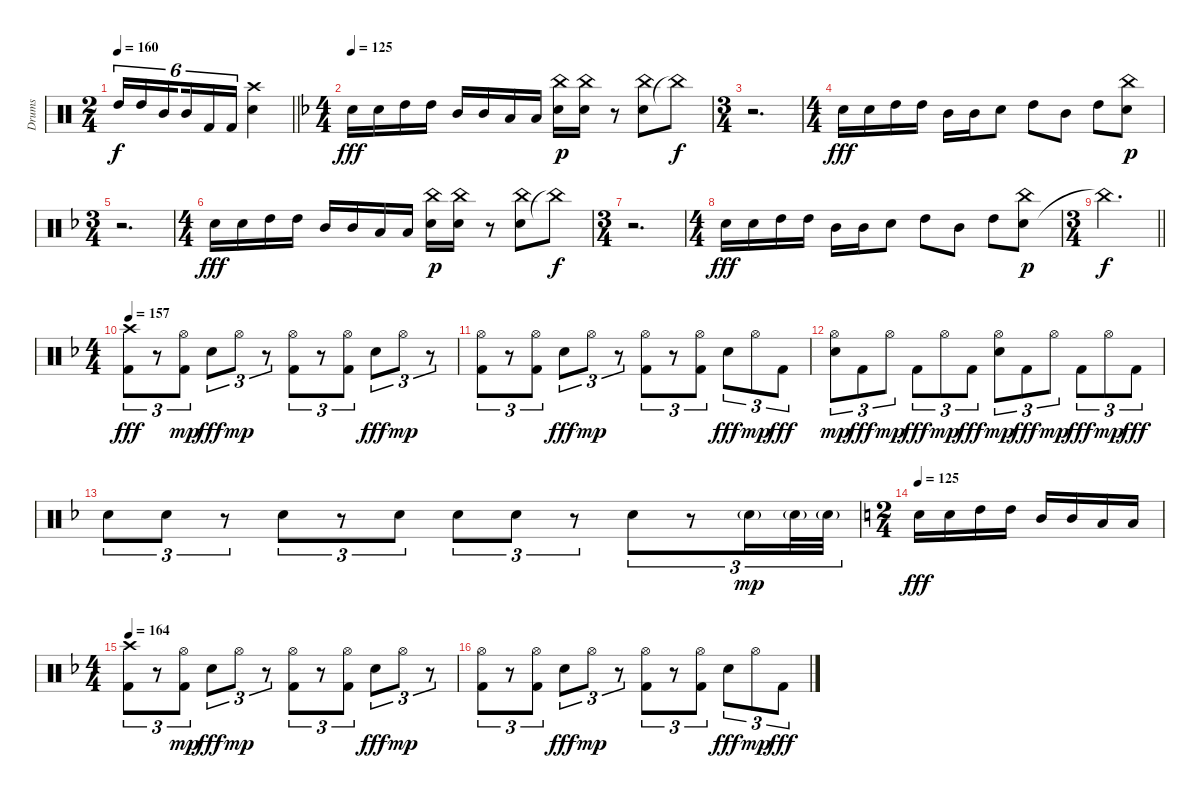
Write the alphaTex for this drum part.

\track ("Drums" "Drums") {instrument percussion}
\staff {score}
\articulation defaults
\ts (2 4)
\tempo 160
\clef neutral
\barLineRight lightlight
\ks c "High Tom (hit)".16{tu (6 4) dy f} "High Tom (hit)".16{tu (6 4)} "Mid Tom (hit)".16{tu (6 4) beam splitsecondary} "Mid Tom (hit)".16{tu (6 4)} "Kick (hit) 2".16{tu (6 4)} "Kick (hit) 2".16{tu (6 4)}
("Crash high (hit)" "Snare (hit) 2").4 |
\ts (4 4)
\tempo 125
\ks f "Electric Snare (hit)".16{dy fff} "Electric Snare (hit)".16 "High Tom (hit)".16 "High Tom (hit)".16 "Mid Tom (hit)".16 "Mid Tom (hit)".16 "Low Tom (hit)".16 "Low Tom (hit)".16
("Electric Snare (hit)" "China (hit)").16{dy p} ("Electric Snare (hit)" "China (hit)").16 r.8 ("Electric Snare (hit)" "China (hit)").8 "China (hit)"{t}.8{dy f} |
\ts (3 4)
r.2{d} |
\ts (4 4)
"Electric Snare (hit)".16{dy fff} "Electric Snare (hit)".16 "High Tom (hit)".16 "High Tom (hit)".16 "Mid Tom (hit)".16 "Mid Tom (hit)".16 "Electric Snare (hit)".8 "High Tom (hit)".8 "Mid Tom (hit)".8 "High Tom (hit)".8 ("Electric Snare (hit)" "China (hit)").8{dy p} |
\ts (3 4)
r.2{d} |
\ts (4 4)
"Electric Snare (hit)".16{dy fff} "Electric Snare (hit)".16 "High Tom (hit)".16 "High Tom (hit)".16 "Mid Tom (hit)".16 "Mid Tom (hit)".16 "Low Tom (hit)".16 "Low Tom (hit)".16 ("Electric Snare (hit)" "China (hit)").16{dy p} ("Electric Snare (hit)" "China (hit)").16 r.8 ("Electric Snare (hit)" "China (hit)").8 "China (hit)"{t}.8{dy f} |
\ts (3 4)
r.2{d} |
\ts (4 4)
"Electric Snare (hit)".16{dy fff} "Electric Snare (hit)".16 "High Tom (hit)".16 "High Tom (hit)".16 "Mid Tom (hit)".16 "Mid Tom (hit)".16 "Electric Snare (hit)".8 "High Tom (hit)".8 "Mid Tom (hit)".8 "High Tom (hit)".8 ("Electric Snare (hit)" "China (hit)").8{dy p} |
\ts (3 4)
\barLineRight lightlight "China (hit)"{t}.2{d dy f}
|
\ts (4 4)
\tempo 157
("Kick (hit) 2" "Crash high (hit)").8{tu (3 2) dy fff} r.8{tu (3 2)} ("Kick (hit) 2" "Hi-Hat (open)").8{tu (3 2) dy mp} "Electric Snare (hit)".8{tu (3 2) dy fff} "Hi-Hat (open)".8{tu (3 2) dy mp} r.8{tu (3 2)} ("Kick (hit) 2" "Hi-Hat (open)").8{tu (3 2)} r.8{tu (3 2)} ("Kick (hit) 2" "Hi-Hat (open)").8{tu (3 2)} "Electric Snare (hit)".8{tu (3 2) dy fff} "Hi-Hat (open)".8{tu (3 2) dy mp} r.8{tu (3 2)} |
("Kick (hit) 2" "Hi-Hat (open)").8{tu (3 2)} r.8{tu (3 2)} ("Kick (hit) 2" "Hi-Hat (open)").8{tu (3 2)} "Electric Snare (hit)".8{tu (3 2) dy fff} "Hi-Hat (open)".8{tu (3 2) dy mp} r.8{tu (3 2)} ("Kick (hit) 2" "Hi-Hat (open)").8{tu (3 2)} r.8{tu (3 2)} ("Kick (hit) 2" "Hi-Hat (open)").8{tu (3 2)} "Electric Snare (hit)".8{tu (3 2) dy fff} "Hi-Hat (open)".8{tu (3 2) dy mp} "Kick (hit) 2".8{tu (3 2) dy fff} |
("Electric Snare (hit)" "Hi-Hat (open)").8{tu (3 2) dy mp} "Kick (hit) 2".8{tu (3 2) dy fff} "Hi-Hat (open)".8{tu (3 2) dy mp} "Kick (hit) 2".8{tu (3 2) dy fff} "Hi-Hat (open)".8{tu (3 2) dy mp} "Kick (hit) 2".8{tu (3 2) dy fff} ("Electric Snare (hit)" "Hi-Hat (open)").8{tu (3 2) dy mp} "Kick (hit) 2".8{tu (3 2) dy fff} "Hi-Hat (open)".8{tu (3 2) dy mp} "Kick (hit) 2".8{tu (3 2) dy fff} "Hi-Hat (open)".8{tu (3 2) dy mp} "Kick (hit) 2".8{tu (3 2) dy fff} |
"Electric Snare (hit)".8{tu (3 2)} "Electric Snare (hit)".8{tu (3 2)} r.8{tu (3 2)} "Electric Snare (hit)".8{tu (3 2)} r.8{tu (3 2)} "Electric Snare (hit)".8{tu (3 2)} "Electric Snare (hit)".8{tu (3 2)} "Electric Snare (hit)".8{tu (3 2)} r.8{tu (3 2)} "Electric Snare (hit)".8{tu (3 2)} r.8{tu (3 2)} "Electric Snare (hit)"{g}.16{tu (3 2) dy mp} "Electric Snare (hit)"{g}.32{tu (3 2)} "Electric Snare (hit)"{g}.32{tu (3 2)} |
\ts (2 4)
\tempo 125
\ks c "Electric Snare (hit)".16{dy fff} "Electric Snare (hit)".16 "High Tom (hit)".16 "High Tom (hit)".16 "Mid Tom (hit)".16 "Mid Tom (hit)".16 "Low Tom (hit)".16 "Low Tom (hit)".16
|
\ts (4 4)
\tempo 164
\ks f
("Kick (hit) 2" "Crash high (hit)").8{tu (3 2)} r.8{tu (3 2)} ("Kick (hit) 2" "Hi-Hat (open)").8{tu (3 2) dy mp} "Electric Snare (hit)".8{tu (3 2) dy fff} "Hi-Hat (open)".8{tu (3 2) dy mp} r.8{tu (3 2)} ("Kick (hit) 2" "Hi-Hat (open)").8{tu (3 2)} r.8{tu (3 2)} ("Kick (hit) 2" "Hi-Hat (open)").8{tu (3 2)} "Electric Snare (hit)".8{tu (3 2) dy fff} "Hi-Hat (open)".8{tu (3 2) dy mp} r.8{tu (3 2)} |
("Kick (hit) 2" "Hi-Hat (open)").8{tu (3 2)} r.8{tu (3 2)} ("Kick (hit) 2" "Hi-Hat (open)").8{tu (3 2)} "Electric Snare (hit)".8{tu (3 2) dy fff} "Hi-Hat (open)".8{tu (3 2) dy mp} r.8{tu (3 2)} ("Kick (hit) 2" "Hi-Hat (open)").8{tu (3 2)} r.8{tu (3 2)} ("Kick (hit) 2" "Hi-Hat (open)").8{tu (3 2)} "Electric Snare (hit)".8{tu (3 2) dy fff} "Hi-Hat (open)".8{tu (3 2) dy mp} "Kick (hit) 2".8{tu (3 2) dy fff}
